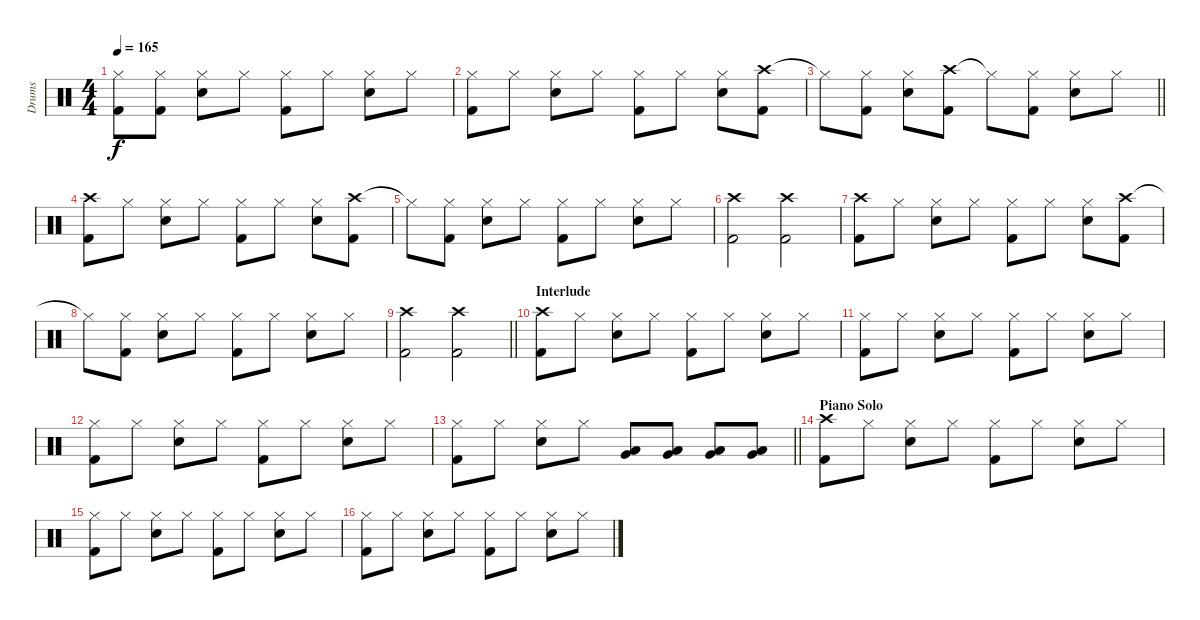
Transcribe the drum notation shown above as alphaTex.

\track ("Drums" "Drums") {instrument percussion}
\staff {score}
\articulation defaults
\ts (4 4)
\tempo 165
\clef neutral
\ks c
("Hi-Hat (closed)" "Kick (hit) 2").8{dy f} ("Hi-Hat (closed)" "Kick (hit) 2").8 ("Hi-Hat (closed)" "Snare (hit) 2").8 "Hi-Hat (closed)".8 ("Hi-Hat (closed)" "Kick (hit) 2").8 "Hi-Hat (closed)".8 ("Hi-Hat (closed)" "Snare (hit) 2").8 "Hi-Hat (closed)".8 |
("Hi-Hat (closed)" "Kick (hit) 2").8 "Hi-Hat (closed)".8 ("Hi-Hat (closed)" "Snare (hit) 2").8 "Hi-Hat (closed)".8 ("Hi-Hat (closed)" "Kick (hit) 2").8 "Hi-Hat (closed)".8 ("Hi-Hat (closed)" "Snare (hit) 2").8 ("Crash high (hit)" "Kick (hit) 2").8 |
\barLineRight lightlight "Hi-Hat (closed)"{t}.8
("Hi-Hat (closed)" "Kick (hit) 2").8 ("Hi-Hat (closed)" "Snare (hit) 2").8 ("Crash high (hit)" "Kick (hit) 2").8 "Hi-Hat (closed)"{t}.8 ("Hi-Hat (closed)" "Kick (hit) 2").8 ("Hi-Hat (closed)" "Snare (hit) 2").8 "Hi-Hat (closed)".8 |
("Crash high (hit)" "Kick (hit) 2").8 "Hi-Hat (closed)".8 ("Hi-Hat (closed)" "Snare (hit) 2").8 "Hi-Hat (closed)".8 ("Hi-Hat (closed)" "Kick (hit) 2").8 "Hi-Hat (closed)".8 ("Hi-Hat (closed)" "Snare (hit) 2").8 ("Crash high (hit)" "Kick (hit) 2").8 |
"Hi-Hat (closed)"{t}.8 ("Hi-Hat (closed)" "Kick (hit) 2").8 ("Hi-Hat (closed)" "Snare (hit) 2").8 "Hi-Hat (closed)".8 ("Hi-Hat (closed)" "Kick (hit) 2").8 "Hi-Hat (closed)".8 ("Hi-Hat (closed)" "Snare (hit) 2").8 "Hi-Hat (closed)".8 |
("Crash high (hit)" "Kick (hit) 2").2 ("Crash high (hit)" "Kick (hit) 2").2 |
("Crash high (hit)" "Kick (hit) 2").8 "Hi-Hat (closed)".8 ("Hi-Hat (closed)" "Snare (hit) 2").8 "Hi-Hat (closed)".8 ("Hi-Hat (closed)" "Kick (hit) 2").8 "Hi-Hat (closed)".8 ("Hi-Hat (closed)" "Snare (hit) 2").8 ("Crash high (hit)" "Kick (hit) 2").8 |
"Hi-Hat (closed)"{t}.8 ("Hi-Hat (closed)" "Kick (hit) 2").8 ("Hi-Hat (closed)" "Snare (hit) 2").8 "Hi-Hat (closed)".8 ("Hi-Hat (closed)" "Kick (hit) 2").8 "Hi-Hat (closed)".8 ("Hi-Hat (closed)" "Snare (hit) 2").8 "Hi-Hat (closed)".8 |
\barLineRight lightlight
("Crash high (hit)" "Kick (hit) 2").2 ("Crash high (hit)" "Kick (hit) 2").2 |
\section ("" "Interlude")
("Crash high (hit)" "Kick (hit) 2").8 "Hi-Hat (closed)".8 ("Hi-Hat (closed)" "Snare (hit) 2").8 "Hi-Hat (closed)".8 ("Hi-Hat (closed)" "Kick (hit) 2").8 "Hi-Hat (closed)".8 ("Hi-Hat (closed)" "Snare (hit) 2").8 "Hi-Hat (closed)".8 |
("Hi-Hat (closed)" "Kick (hit) 2").8 "Hi-Hat (closed)".8 ("Hi-Hat (closed)" "Snare (hit) 2").8 "Hi-Hat (closed)".8 ("Hi-Hat (closed)" "Kick (hit) 2").8 "Hi-Hat (closed)".8 ("Hi-Hat (closed)" "Snare (hit) 2").8 "Hi-Hat (closed)".8 |
("Hi-Hat (closed)" "Kick (hit) 2").8 "Hi-Hat (closed)".8 ("Hi-Hat (closed)" "Snare (hit) 2").8 "Hi-Hat (closed)".8 ("Hi-Hat (closed)" "Kick (hit) 2").8 "Hi-Hat (closed)".8 ("Hi-Hat (closed)" "Snare (hit) 2").8 "Hi-Hat (closed)".8 |
\barLineRight lightlight
("Hi-Hat (closed)" "Kick (hit) 2").8 "Hi-Hat (closed)".8 ("Hi-Hat (closed)" "Snare (hit) 2").8 "Hi-Hat (closed)".8 ("Low Tom (hit)" "Very Low Tom (hit)").8 ("Low Tom (hit)" "Very Low Tom (hit)").8 ("Low Tom (hit)" "Very Low Tom (hit)").8 ("Low Tom (hit)" "Very Low Tom (hit)").8 |
\section ("" "Piano Solo")
("Crash high (hit)" "Kick (hit) 2").8 "Hi-Hat (closed)".8 ("Hi-Hat (closed)" "Snare (hit) 2").8 "Hi-Hat (closed)".8 ("Hi-Hat (closed)" "Kick (hit) 2").8 "Hi-Hat (closed)".8 ("Hi-Hat (closed)" "Snare (hit) 2").8 "Hi-Hat (closed)".8 |
("Hi-Hat (closed)" "Kick (hit) 2").8 "Hi-Hat (closed)".8 ("Hi-Hat (closed)" "Snare (hit) 2").8 "Hi-Hat (closed)".8 ("Hi-Hat (closed)" "Kick (hit) 2").8 "Hi-Hat (closed)".8 ("Hi-Hat (closed)" "Snare (hit) 2").8 "Hi-Hat (closed)".8 |
("Hi-Hat (closed)" "Kick (hit) 2").8 "Hi-Hat (closed)".8 ("Hi-Hat (closed)" "Snare (hit) 2").8 "Hi-Hat (closed)".8 ("Hi-Hat (closed)" "Kick (hit) 2").8 "Hi-Hat (closed)".8 ("Hi-Hat (closed)" "Snare (hit) 2").8 "Hi-Hat (closed)".8
